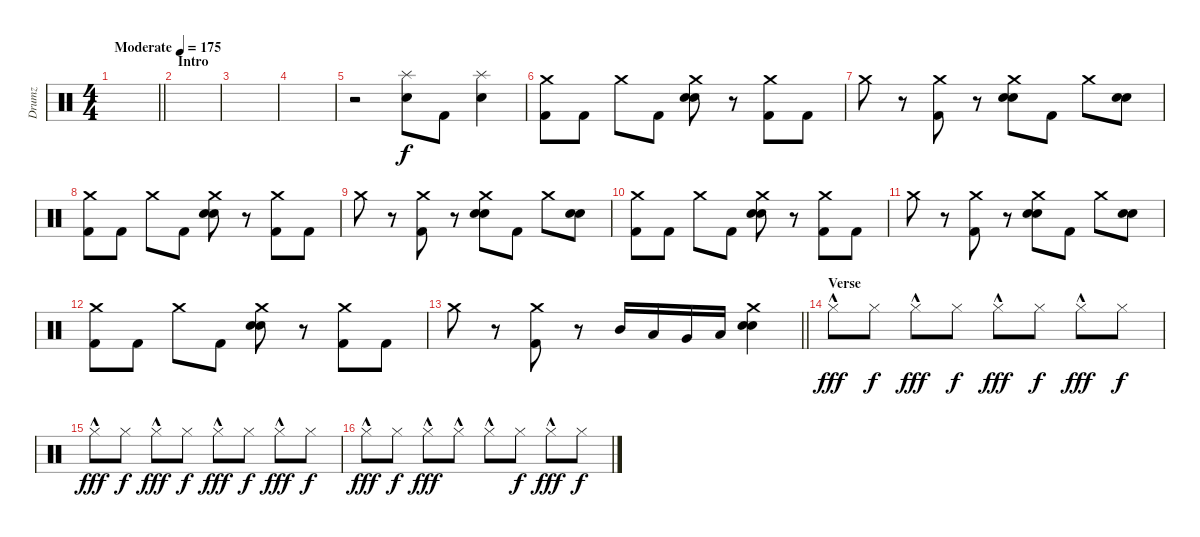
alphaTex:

\track ("Drumz" "Drumz") {instrument percussion}
\staff {score}
\articulation defaults
\ts (4 4)
\tempo (175 "Moderate")
\clef neutral
\barLineRight lightlight
\ks c
|
\section ("" "Intro")
|
|
|
r.2 ("Electric Snare (hit)" "Splash (hit)").8 "Kick (hit) 2".8 ("Electric Snare (hit)" "Splash (hit)").4 |
("Crash medium (hit)" "Kick (hit) 2").8 "Kick (hit) 2".8 "Crash medium (hit)".8 "Kick (hit) 2".8 ("Crash medium (hit)" "Electric Snare (hit)" "Electric Snare (hit)").8 r.8 ("Crash medium (hit)" "Kick (hit) 2").8 "Kick (hit) 2".8 |
"Crash medium (hit)".8 r.8 ("Crash medium (hit)" "Kick (hit) 2").8 r.8 ("Crash medium (hit)" "Electric Snare (hit)" "Electric Snare (hit)").8 "Kick (hit) 2".8 "Crash medium (hit)".8 ("Electric Snare (hit)" "Electric Snare (hit)").8 |
("Crash medium (hit)" "Kick (hit) 2").8 "Kick (hit) 2".8 "Crash medium (hit)".8 "Kick (hit) 2".8 ("Crash medium (hit)" "Electric Snare (hit)" "Electric Snare (hit)").8 r.8 ("Crash medium (hit)" "Kick (hit) 2").8 "Kick (hit) 2".8 |
"Crash medium (hit)".8 r.8 ("Crash medium (hit)" "Kick (hit) 2").8 r.8 ("Crash medium (hit)" "Electric Snare (hit)" "Electric Snare (hit)").8 "Kick (hit) 2".8 "Crash medium (hit)".8 ("Electric Snare (hit)" "Electric Snare (hit)").8 |
("Crash medium (hit)" "Kick (hit) 2").8 "Kick (hit) 2".8 "Crash medium (hit)".8 "Kick (hit) 2".8 ("Crash medium (hit)" "Electric Snare (hit)" "Electric Snare (hit)").8 r.8 ("Crash medium (hit)" "Kick (hit) 2").8 "Kick (hit) 2".8 |
"Crash medium (hit)".8 r.8 ("Crash medium (hit)" "Kick (hit) 2").8 r.8 ("Crash medium (hit)" "Electric Snare (hit)" "Electric Snare (hit)").8 "Kick (hit) 2".8 "Crash medium (hit)".8 ("Electric Snare (hit)" "Electric Snare (hit)").8 |
("Crash medium (hit)" "Kick (hit) 2").8 "Kick (hit) 2".8 "Crash medium (hit)".8 "Kick (hit) 2".8 ("Crash medium (hit)" "Electric Snare (hit)" "Electric Snare (hit)").8 r.8 ("Crash medium (hit)" "Kick (hit) 2").8 "Kick (hit) 2".8 |
\barLineRight lightlight "Crash medium (hit)".8
r.8 ("Crash medium (hit)" "Kick (hit) 2").8 r.8 "Mid Tom (hit)".16 "Low Tom (hit)".16 "Very Low Tom (hit)".16 "Low Floor Tom (hit)".16 ("Crash medium (hit)" "Electric Snare (hit)" "Electric Snare (hit)").4 |
\section ("" "Verse")
"Hi-Hat (closed)"{hac}.8{dy fff} "Hi-Hat (closed)".8{dy f} "Hi-Hat (closed)"{hac}.8{dy fff} "Hi-Hat (closed)".8{dy f} "Hi-Hat (closed)"{hac}.8{dy fff} "Hi-Hat (closed)".8{dy f} "Hi-Hat (closed)"{hac}.8{dy fff} "Hi-Hat (closed)".8{dy f} |
"Hi-Hat (closed)"{hac}.8{dy fff} "Hi-Hat (closed)".8{dy f} "Hi-Hat (closed)"{hac}.8{dy fff} "Hi-Hat (closed)".8{dy f} "Hi-Hat (closed)"{hac}.8{dy fff} "Hi-Hat (closed)".8{dy f} "Hi-Hat (closed)"{hac}.8{dy fff} "Hi-Hat (closed)".8{dy f} |
"Hi-Hat (closed)"{hac}.8{dy fff} "Hi-Hat (closed)".8{dy f} "Hi-Hat (closed)"{hac}.8{dy fff} "Hi-Hat (closed)"{hac}.8 "Hi-Hat (closed)"{hac}.8 "Hi-Hat (closed)".8{dy f} "Hi-Hat (closed)"{hac}.8{dy fff} "Hi-Hat (closed)".8{dy f}
